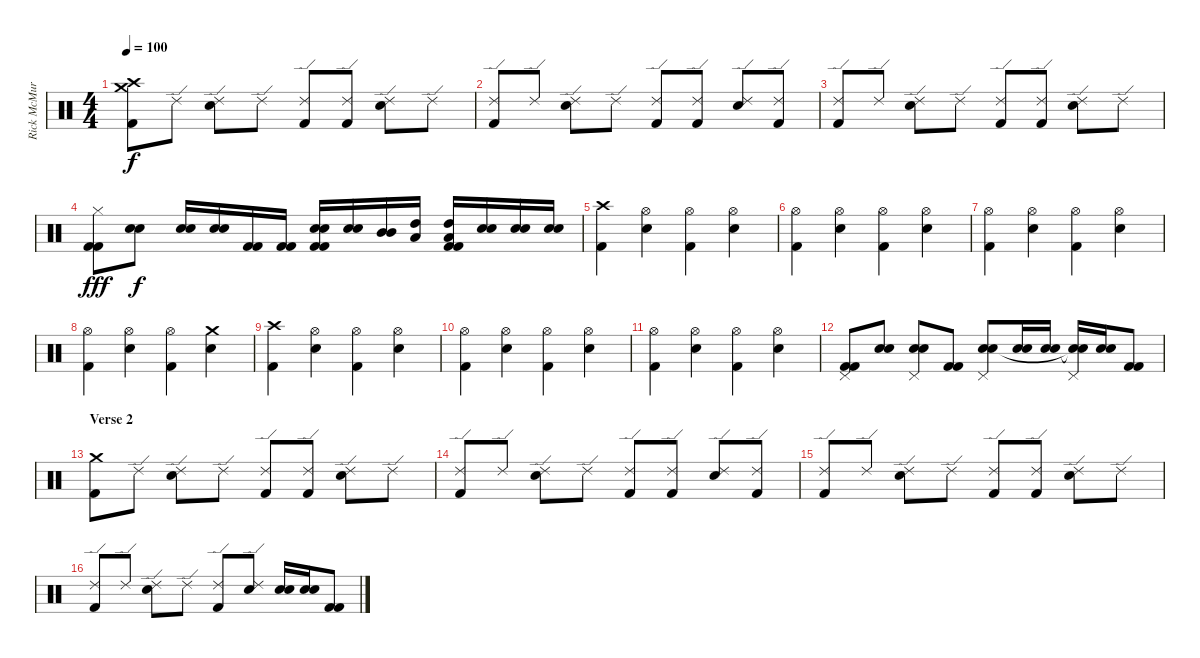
\track ("Rick McMurray" "Rick McMur") {instrument percussion}
\staff {score}
\articulation defaults
\ts (4 4)
\tempo 100
\clef neutral
\ks c
("Crash medium (hit)" "Crash high (hit)" "Kick (hit) 2").8{dy f} "Ride (edge) 2".8 ("Ride (edge) 2" "Snare (hit) 2").8 "Ride (edge) 2".8 ("Ride (edge) 2" "Kick (hit) 2").8 ("Ride (edge) 2" "Kick (hit) 2").8 ("Ride (edge) 2" "Snare (hit) 2").8 "Ride (edge) 2".8 |
("Ride (edge) 2" "Kick (hit) 2").8 "Ride (edge) 2".8 ("Ride (edge) 2" "Snare (hit) 2").8 "Ride (edge) 2".8 ("Ride (edge) 2" "Kick (hit) 2").8 ("Ride (edge) 2" "Kick (hit) 2").8 ("Ride (edge) 2" "Snare (hit) 2").8 ("Ride (edge) 2" "Kick (hit) 2").8 |
("Ride (edge) 2" "Kick (hit) 2").8 "Ride (edge) 2".8 ("Ride (edge) 2" "Snare (hit) 2").8 "Ride (edge) 2".8 ("Ride (edge) 2" "Kick (hit) 2").8 ("Ride (edge) 2" "Kick (hit) 2").8 ("Ride (edge) 2" "Snare (hit) 2").8 "Ride (edge) 2".8 |
("Hi-Hat (closed)" "Kick (hit) 2" "Kick (hit) 2").8{dy fff} ("Electric Snare (hit)" "Snare (hit) 2").8{dy f} ("Electric Snare (hit)" "Snare (hit) 2").16 ("Electric Snare (hit)" "Snare (hit) 2").16 ("Kick (hit) 2" "Kick (hit) 2").16 ("Kick (hit) 2" "Kick (hit) 2").16 ("Snare (hit) 2" "Snare (hit) 2" "Kick (hit) 2" "Kick (hit) 2").16 ("Snare (hit) 2" "Snare (hit) 2").16 ("Mid Tom (hit)" "Mid Tom (hit)").16 ("Low Floor Tom (hit)" "High Tom (hit)").16 ("Low Floor Tom (hit)" "High Tom (hit)" "Kick (hit) 2" "Kick (hit) 2").16 ("Electric Snare (hit)" "Snare (hit) 2").16 ("Electric Snare (hit)" "Snare (hit) 2").16 ("Electric Snare (hit)" "Snare (hit) 2").16 |
("Crash high (hit)" "Kick (hit) 2").4 ("Hi-Hat (open)" "Snare (hit) 2").4 ("Hi-Hat (open)" "Kick (hit) 2").4 ("Hi-Hat (open)" "Snare (hit) 2").4 |
("Hi-Hat (open)" "Kick (hit) 2").4 ("Hi-Hat (open)" "Snare (hit) 2").4 ("Hi-Hat (open)" "Kick (hit) 2").4 ("Hi-Hat (open)" "Snare (hit) 2").4 |
("Hi-Hat (open)" "Kick (hit) 2").4 ("Hi-Hat (open)" "Snare (hit) 2").4 ("Hi-Hat (open)" "Kick (hit) 2").4 ("Hi-Hat (open)" "Snare (hit) 2").4 |
("Hi-Hat (open)" "Kick (hit) 2").4 ("Hi-Hat (open)" "Snare (hit) 2").4 ("Hi-Hat (open)" "Kick (hit) 2").4 ("Crash medium (hit)" "Snare (hit) 2").4 |
("Crash high (hit)" "Kick (hit) 2").4 ("Hi-Hat (open)" "Snare (hit) 2").4 ("Hi-Hat (open)" "Kick (hit) 2").4 ("Hi-Hat (open)" "Snare (hit) 2").4 |
("Hi-Hat (open)" "Kick (hit) 2").4 ("Hi-Hat (open)" "Snare (hit) 2").4 ("Hi-Hat (open)" "Kick (hit) 2").4 ("Hi-Hat (open)" "Snare (hit) 2").4 |
("Hi-Hat (open)" "Kick (hit) 2").4 ("Hi-Hat (open)" "Snare (hit) 2").4 ("Hi-Hat (open)" "Kick (hit) 2").4 ("Hi-Hat (open)" "Snare (hit) 2").4 |
("Pedal Hi-Hat (hit)" "Kick (hit) 2" "Kick (hit) 2").8 ("Snare (hit) 2" "Snare (hit) 2").8 ("Pedal Hi-Hat (hit)" "Snare (hit) 2" "Snare (hit) 2").8 ("Kick (hit) 2" "Kick (hit) 2").8 ("Pedal Hi-Hat (hit)" "Snare (hit) 2" "Snare (hit) 2").8 ("Snare (hit) 2" "Snare (hit) 2").16 ("Snare (hit) 2" "Snare (hit) 2").16 ("Pedal Hi-Hat (hit)" "Snare (hit) 2"{t} "Snare (hit)"{t}).16 ("Snare (hit) 2" "Snare (hit) 2").16 ("Kick (hit) 2" "Kick (hit) 2").8 |
\section ("" "Verse 2")
("Crash medium (hit)" "Kick (hit) 2").8 "Ride (edge) 2".8 ("Ride (edge) 2" "Snare (hit) 2").8 "Ride (edge) 2".8 ("Ride (edge) 2" "Kick (hit) 2").8 ("Ride (edge) 2" "Kick (hit) 2").8 ("Ride (edge) 2" "Snare (hit) 2").8 "Ride (edge) 2".8 |
("Ride (edge) 2" "Kick (hit) 2").8 "Ride (edge) 2".8 ("Ride (edge) 2" "Snare (hit) 2").8 "Ride (edge) 2".8 ("Ride (edge) 2" "Kick (hit) 2").8 ("Ride (edge) 2" "Kick (hit) 2").8 ("Ride (edge) 2" "Snare (hit) 2").8 ("Ride (edge) 2" "Kick (hit) 2").8 |
("Ride (edge) 2" "Kick (hit) 2").8 "Ride (edge) 2".8 ("Ride (edge) 2" "Snare (hit) 2").8 "Ride (edge) 2".8 ("Ride (edge) 2" "Kick (hit) 2").8 ("Ride (edge) 2" "Kick (hit) 2").8 ("Ride (edge) 2" "Snare (hit) 2").8 "Ride (edge) 2".8 |
("Ride (edge) 2" "Kick (hit) 2").8 "Ride (edge) 2".8 ("Ride (edge) 2" "Snare (hit) 2").8 "Ride (edge) 2".8 ("Ride (edge) 2" "Kick (hit) 2").8 ("Ride (edge) 2" "Snare (hit) 2").8 ("Snare (hit) 2" "Snare (hit) 2").16 ("Snare (hit) 2" "Snare (hit) 2").16 ("Kick (hit) 2" "Kick (hit) 2").8
